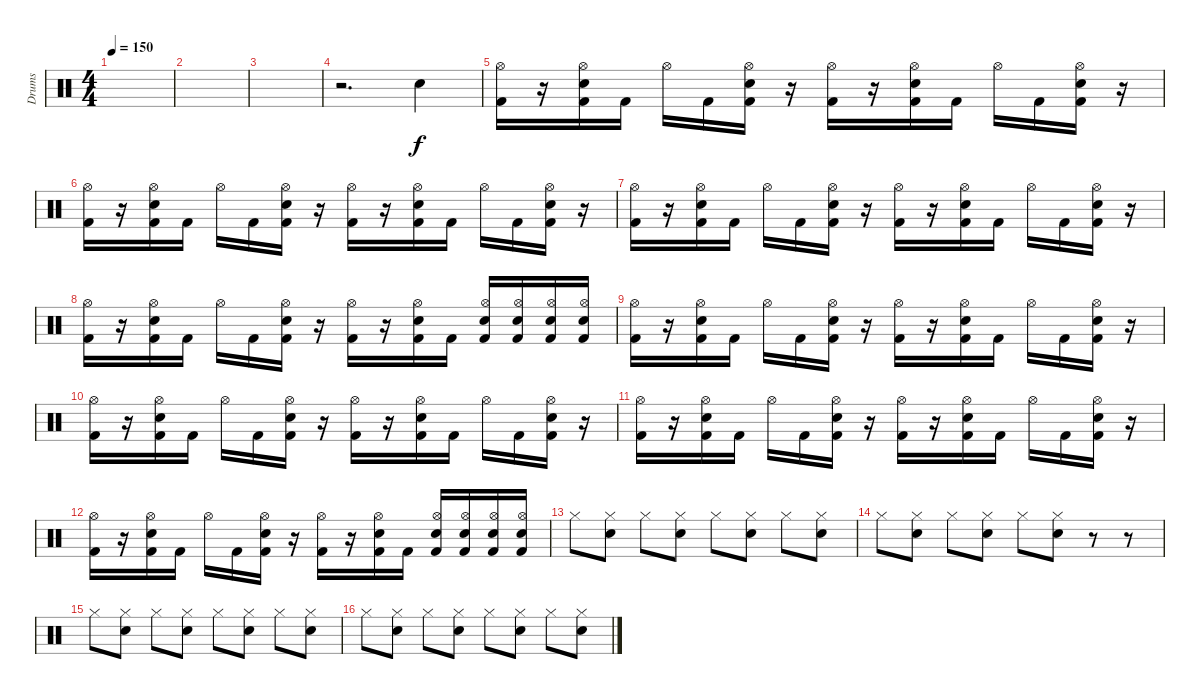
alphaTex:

\track ("Drums" "Drums") {instrument percussion}
\staff {score}
\articulation defaults
\ts (4 4)
\tempo 150
\clef neutral
\ks c
|
|
|
r.2{d} "Electric Snare (hit)".4 |
("Hi-Hat (open)" "Kick (hit) 2").16 r.16 ("Hi-Hat (open)" "Electric Snare (hit)" "Kick (hit) 2").16 "Kick (hit) 2".16 "Hi-Hat (open)".16 "Kick (hit) 2".16 ("Hi-Hat (open)" "Electric Snare (hit)" "Kick (hit) 2").16 r.16 ("Hi-Hat (open)" "Kick (hit) 2").16 r.16 ("Hi-Hat (open)" "Electric Snare (hit)" "Kick (hit) 2").16 "Kick (hit) 2".16 "Hi-Hat (open)".16 "Kick (hit) 2".16 ("Hi-Hat (open)" "Electric Snare (hit)" "Kick (hit) 2").16 r.16 |
("Hi-Hat (open)" "Kick (hit) 2").16 r.16 ("Hi-Hat (open)" "Electric Snare (hit)" "Kick (hit) 2").16 "Kick (hit) 2".16 "Hi-Hat (open)".16 "Kick (hit) 2".16 ("Hi-Hat (open)" "Electric Snare (hit)" "Kick (hit) 2").16 r.16 ("Hi-Hat (open)" "Kick (hit) 2").16 r.16 ("Hi-Hat (open)" "Electric Snare (hit)" "Kick (hit) 2").16 "Kick (hit) 2".16 "Hi-Hat (open)".16 "Kick (hit) 2".16 ("Hi-Hat (open)" "Electric Snare (hit)" "Kick (hit) 2").16 r.16 |
("Hi-Hat (open)" "Kick (hit) 2").16 r.16 ("Hi-Hat (open)" "Electric Snare (hit)" "Kick (hit) 2").16 "Kick (hit) 2".16 "Hi-Hat (open)".16 "Kick (hit) 2".16 ("Hi-Hat (open)" "Electric Snare (hit)" "Kick (hit) 2").16 r.16 ("Hi-Hat (open)" "Kick (hit) 2").16 r.16 ("Hi-Hat (open)" "Electric Snare (hit)" "Kick (hit) 2").16 "Kick (hit) 2".16 "Hi-Hat (open)".16 "Kick (hit) 2".16 ("Hi-Hat (open)" "Electric Snare (hit)" "Kick (hit) 2").16 r.16 |
("Hi-Hat (open)" "Kick (hit) 2").16 r.16 ("Hi-Hat (open)" "Electric Snare (hit)" "Kick (hit) 2").16 "Kick (hit) 2".16 "Hi-Hat (open)".16 "Kick (hit) 2".16 ("Hi-Hat (open)" "Electric Snare (hit)" "Kick (hit) 2").16 r.16 ("Hi-Hat (open)" "Kick (hit) 2").16 r.16 ("Hi-Hat (open)" "Electric Snare (hit)" "Kick (hit) 2").16 "Kick (hit) 2".16 ("Hi-Hat (open)" "Electric Snare (hit)" "Kick (hit) 2").16 ("Hi-Hat (open)" "Electric Snare (hit)" "Kick (hit) 2").16 ("Hi-Hat (open)" "Electric Snare (hit)" "Kick (hit) 2").16 ("Hi-Hat (open)" "Electric Snare (hit)" "Kick (hit) 2").16 |
("Hi-Hat (open)" "Kick (hit) 2").16 r.16 ("Hi-Hat (open)" "Electric Snare (hit)" "Kick (hit) 2").16 "Kick (hit) 2".16 "Hi-Hat (open)".16 "Kick (hit) 2".16 ("Hi-Hat (open)" "Electric Snare (hit)" "Kick (hit) 2").16 r.16 ("Hi-Hat (open)" "Kick (hit) 2").16 r.16 ("Hi-Hat (open)" "Electric Snare (hit)" "Kick (hit) 2").16 "Kick (hit) 2".16 "Hi-Hat (open)".16 "Kick (hit) 2".16 ("Hi-Hat (open)" "Electric Snare (hit)" "Kick (hit) 2").16 r.16 |
("Hi-Hat (open)" "Kick (hit) 2").16 r.16 ("Hi-Hat (open)" "Electric Snare (hit)" "Kick (hit) 2").16 "Kick (hit) 2".16 "Hi-Hat (open)".16 "Kick (hit) 2".16 ("Hi-Hat (open)" "Electric Snare (hit)" "Kick (hit) 2").16 r.16 ("Hi-Hat (open)" "Kick (hit) 2").16 r.16 ("Hi-Hat (open)" "Electric Snare (hit)" "Kick (hit) 2").16 "Kick (hit) 2".16 "Hi-Hat (open)".16 "Kick (hit) 2".16 ("Hi-Hat (open)" "Electric Snare (hit)" "Kick (hit) 2").16 r.16 |
("Hi-Hat (open)" "Kick (hit) 2").16 r.16 ("Hi-Hat (open)" "Electric Snare (hit)" "Kick (hit) 2").16 "Kick (hit) 2".16 "Hi-Hat (open)".16 "Kick (hit) 2".16 ("Hi-Hat (open)" "Electric Snare (hit)" "Kick (hit) 2").16 r.16 ("Hi-Hat (open)" "Kick (hit) 2").16 r.16 ("Hi-Hat (open)" "Electric Snare (hit)" "Kick (hit) 2").16 "Kick (hit) 2".16 "Hi-Hat (open)".16 "Kick (hit) 2".16 ("Hi-Hat (open)" "Electric Snare (hit)" "Kick (hit) 2").16 r.16 |
("Hi-Hat (open)" "Kick (hit) 2").16 r.16 ("Hi-Hat (open)" "Electric Snare (hit)" "Kick (hit) 2").16 "Kick (hit) 2".16 "Hi-Hat (open)".16 "Kick (hit) 2".16 ("Hi-Hat (open)" "Electric Snare (hit)" "Kick (hit) 2").16 r.16 ("Hi-Hat (open)" "Kick (hit) 2").16 r.16 ("Hi-Hat (open)" "Electric Snare (hit)" "Kick (hit) 2").16 "Kick (hit) 2".16 ("Hi-Hat (open)" "Electric Snare (hit)" "Kick (hit) 2").16 ("Hi-Hat (open)" "Electric Snare (hit)" "Kick (hit) 2").16 ("Hi-Hat (open)" "Electric Snare (hit)" "Kick (hit) 2").16 ("Hi-Hat (open)" "Electric Snare (hit)" "Kick (hit) 2").16 |
"Hi-Hat (closed)".8 ("Hi-Hat (closed)" "Electric Snare (hit)").8 "Hi-Hat (closed)".8 ("Hi-Hat (closed)" "Electric Snare (hit)").8 "Hi-Hat (closed)".8 ("Hi-Hat (closed)" "Electric Snare (hit)").8 "Hi-Hat (closed)".8 ("Hi-Hat (closed)" "Electric Snare (hit)").8 |
"Hi-Hat (closed)".8 ("Hi-Hat (closed)" "Electric Snare (hit)").8 "Hi-Hat (closed)".8 ("Hi-Hat (closed)" "Electric Snare (hit)").8 "Hi-Hat (closed)".8 ("Hi-Hat (closed)" "Electric Snare (hit)").8 r.8 r.8 |
"Hi-Hat (closed)".8 ("Hi-Hat (closed)" "Electric Snare (hit)").8 "Hi-Hat (closed)".8 ("Hi-Hat (closed)" "Electric Snare (hit)").8 "Hi-Hat (closed)".8 ("Hi-Hat (closed)" "Electric Snare (hit)").8 "Hi-Hat (closed)".8 ("Hi-Hat (closed)" "Electric Snare (hit)").8 |
"Hi-Hat (closed)".8 ("Hi-Hat (closed)" "Electric Snare (hit)").8 "Hi-Hat (closed)".8 ("Hi-Hat (closed)" "Electric Snare (hit)").8 "Hi-Hat (closed)".8 ("Hi-Hat (closed)" "Electric Snare (hit)").8 "Hi-Hat (closed)".8 ("Hi-Hat (closed)" "Electric Snare (hit)").8
